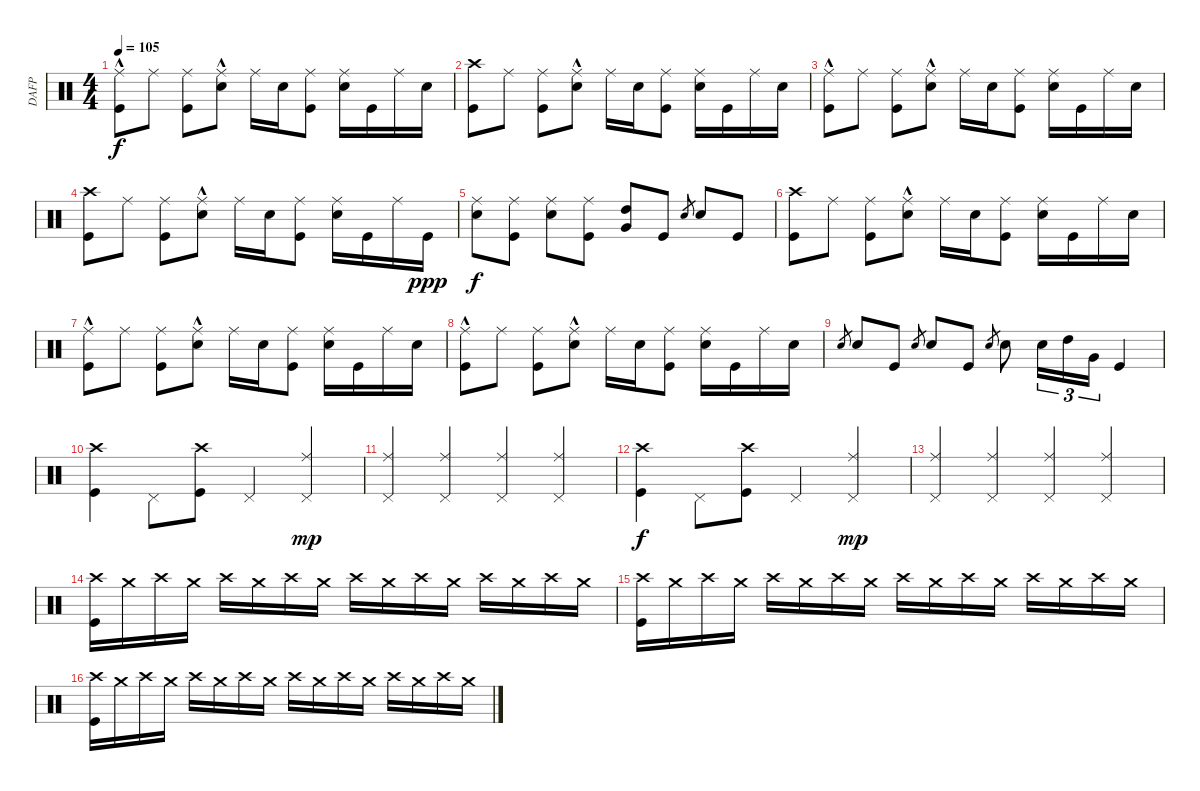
\track ("DAFP" "DAFP") {instrument percussion}
\staff {score}
\articulation defaults
\ts (4 4)
\tempo 105
\clef neutral
\ks c
("Ride (middle)"{hac} "Kick (hit)").8{dy f} "Ride (middle)".8 ("Kick (hit)" "Ride (middle)").8 ("Snare (hit) 2" "Ride (middle)"{hac}).8 "Ride (middle)".16 "Snare (hit) 2".16 ("Kick (hit)" "Ride (middle)").8 ("Snare (hit) 2" "Ride (middle)").16 "Kick (hit)".16 "Ride (middle)".16 "Snare (hit) 2".16 |
("Crash high (hit)" "Kick (hit)").8 "Ride (middle)".8 ("Kick (hit)" "Ride (middle)").8 ("Snare (hit) 2" "Ride (middle)"{hac}).8 "Ride (middle)".16 "Snare (hit) 2".16 ("Kick (hit)" "Ride (middle)").8 ("Snare (hit) 2" "Ride (middle)").16 "Kick (hit)".16 "Ride (middle)".16 "Snare (hit) 2".16 |
("Ride (middle)"{hac} "Kick (hit)").8 "Ride (middle)".8 ("Kick (hit)" "Ride (middle)").8 ("Snare (hit) 2" "Ride (middle)"{hac}).8 "Ride (middle)".16 "Snare (hit) 2".16 ("Kick (hit)" "Ride (middle)").8 ("Snare (hit) 2" "Ride (middle)").16 "Kick (hit)".16 "Ride (middle)".16 "Snare (hit) 2".16 |
("Crash high (hit)" "Kick (hit)").8 "Ride (middle)".8 ("Kick (hit)" "Ride (middle)").8 ("Snare (hit) 2" "Ride (middle)"{hac}).8 "Ride (middle)".16 "Snare (hit) 2".16 ("Kick (hit)" "Ride (middle)").8 ("Snare (hit) 2" "Ride (middle)").16 "Kick (hit)".16 "Ride (middle)".16 "Kick (hit)".16{dy ppp} |
("Snare (hit) 2" "Ride (middle)").8{dy f} ("Kick (hit)" "Ride (middle)").8 ("Snare (hit) 2" "Ride (middle)").8 ("Kick (hit)" "Ride (middle)").8 ("High Tom (hit)" "Very Low Tom (hit)").8 "Kick (hit)".8 "Snare (hit) 2".8{gr} "Snare (hit) 2".8 "Kick (hit)".8 |
("Crash high (hit)" "Kick (hit)").8 "Ride (middle)".8 ("Kick (hit)" "Ride (middle)").8 ("Snare (hit) 2" "Ride (middle)"{hac}).8 "Ride (middle)".16 "Snare (hit) 2".16 ("Kick (hit)" "Ride (middle)").8 ("Snare (hit) 2" "Ride (middle)").16 "Kick (hit)".16 "Ride (middle)".16 "Snare (hit) 2".16 |
("Ride (middle)"{hac} "Kick (hit)").8 "Ride (middle)".8 ("Kick (hit)" "Ride (middle)").8 ("Snare (hit) 2" "Ride (middle)"{hac}).8 "Ride (middle)".16 "Snare (hit) 2".16 ("Kick (hit)" "Ride (middle)").8 ("Snare (hit) 2" "Ride (middle)").16 "Kick (hit)".16 "Ride (middle)".16 "Snare (hit) 2".16 |
("Ride (middle)"{hac} "Kick (hit)").8 "Ride (middle)".8 ("Kick (hit)" "Ride (middle)").8 ("Snare (hit) 2" "Ride (middle)"{hac}).8 "Ride (middle)".16 "Snare (hit) 2".16 ("Kick (hit)" "Ride (middle)").8 ("Snare (hit) 2" "Ride (middle)").16 "Kick (hit)".16 "Ride (middle)".16 "Snare (hit) 2".16 |
"Snare (hit) 2".8{gr} "Snare (hit) 2".8 "Kick (hit)".8 "Snare (hit) 2".8{gr} "Snare (hit) 2".8 "Kick (hit)".8 "Snare (hit) 2".8{gr} "Snare (hit) 2".8 "Snare (hit) 2".16{tu (3 2)} "High Tom (hit)".16{tu (3 2)} "Very Low Tom (hit)".16{tu (3 2)} "Kick (hit)".4 |
("Crash high (hit)" "Kick (hit)").4 "Pedal Hi-Hat (hit)".8 ("Kick (hit)" "Crash high (hit)").8 "Pedal Hi-Hat (hit)".4 ("Pedal Hi-Hat (hit)" "Ride (middle)").4{dy mp} |
("Pedal Hi-Hat (hit)" "Ride (middle)").4 ("Pedal Hi-Hat (hit)" "Ride (middle)").4 ("Pedal Hi-Hat (hit)" "Ride (middle)").4 ("Pedal Hi-Hat (hit)" "Ride (middle)").4 |
("Crash high (hit)" "Kick (hit)").4{dy f} "Pedal Hi-Hat (hit)".8 ("Kick (hit)" "Crash high (hit)").8 "Pedal Hi-Hat (hit)".4 ("Pedal Hi-Hat (hit)" "Ride (middle)").4{dy mp} |
("Pedal Hi-Hat (hit)" "Ride (middle)").4 ("Pedal Hi-Hat (hit)" "Ride (middle)").4 ("Pedal Hi-Hat (hit)" "Ride (middle)").4 ("Pedal Hi-Hat (hit)" "Ride (middle)").4 |
("Kick (hit)" "Crash high (hit)").16 "Crash medium (hit)".16 "Crash high (hit)".16 "Crash medium (hit)".16 "Crash high (hit)".16 "Crash medium (hit)".16 "Crash high (hit)".16 "Crash medium (hit)".16 "Crash high (hit)".16 "Crash medium (hit)".16 "Crash high (hit)".16 "Crash medium (hit)".16 "Crash high (hit)".16 "Crash medium (hit)".16 "Crash high (hit)".16 "Crash medium (hit)".16 |
("Kick (hit)" "Crash high (hit)").16 "Crash medium (hit)".16 "Crash high (hit)".16 "Crash medium (hit)".16 "Crash high (hit)".16 "Crash medium (hit)".16 "Crash high (hit)".16 "Crash medium (hit)".16 "Crash high (hit)".16 "Crash medium (hit)".16 "Crash high (hit)".16 "Crash medium (hit)".16 "Crash high (hit)".16 "Crash medium (hit)".16 "Crash high (hit)".16 "Crash medium (hit)".16 |
("Kick (hit)" "Crash high (hit)").16 "Crash medium (hit)".16 "Crash high (hit)".16 "Crash medium (hit)".16 "Crash high (hit)".16 "Crash medium (hit)".16 "Crash high (hit)".16 "Crash medium (hit)".16 "Crash high (hit)".16 "Crash medium (hit)".16 "Crash high (hit)".16 "Crash medium (hit)".16 "Crash high (hit)".16 "Crash medium (hit)".16 "Crash high (hit)".16 "Crash medium (hit)".16
